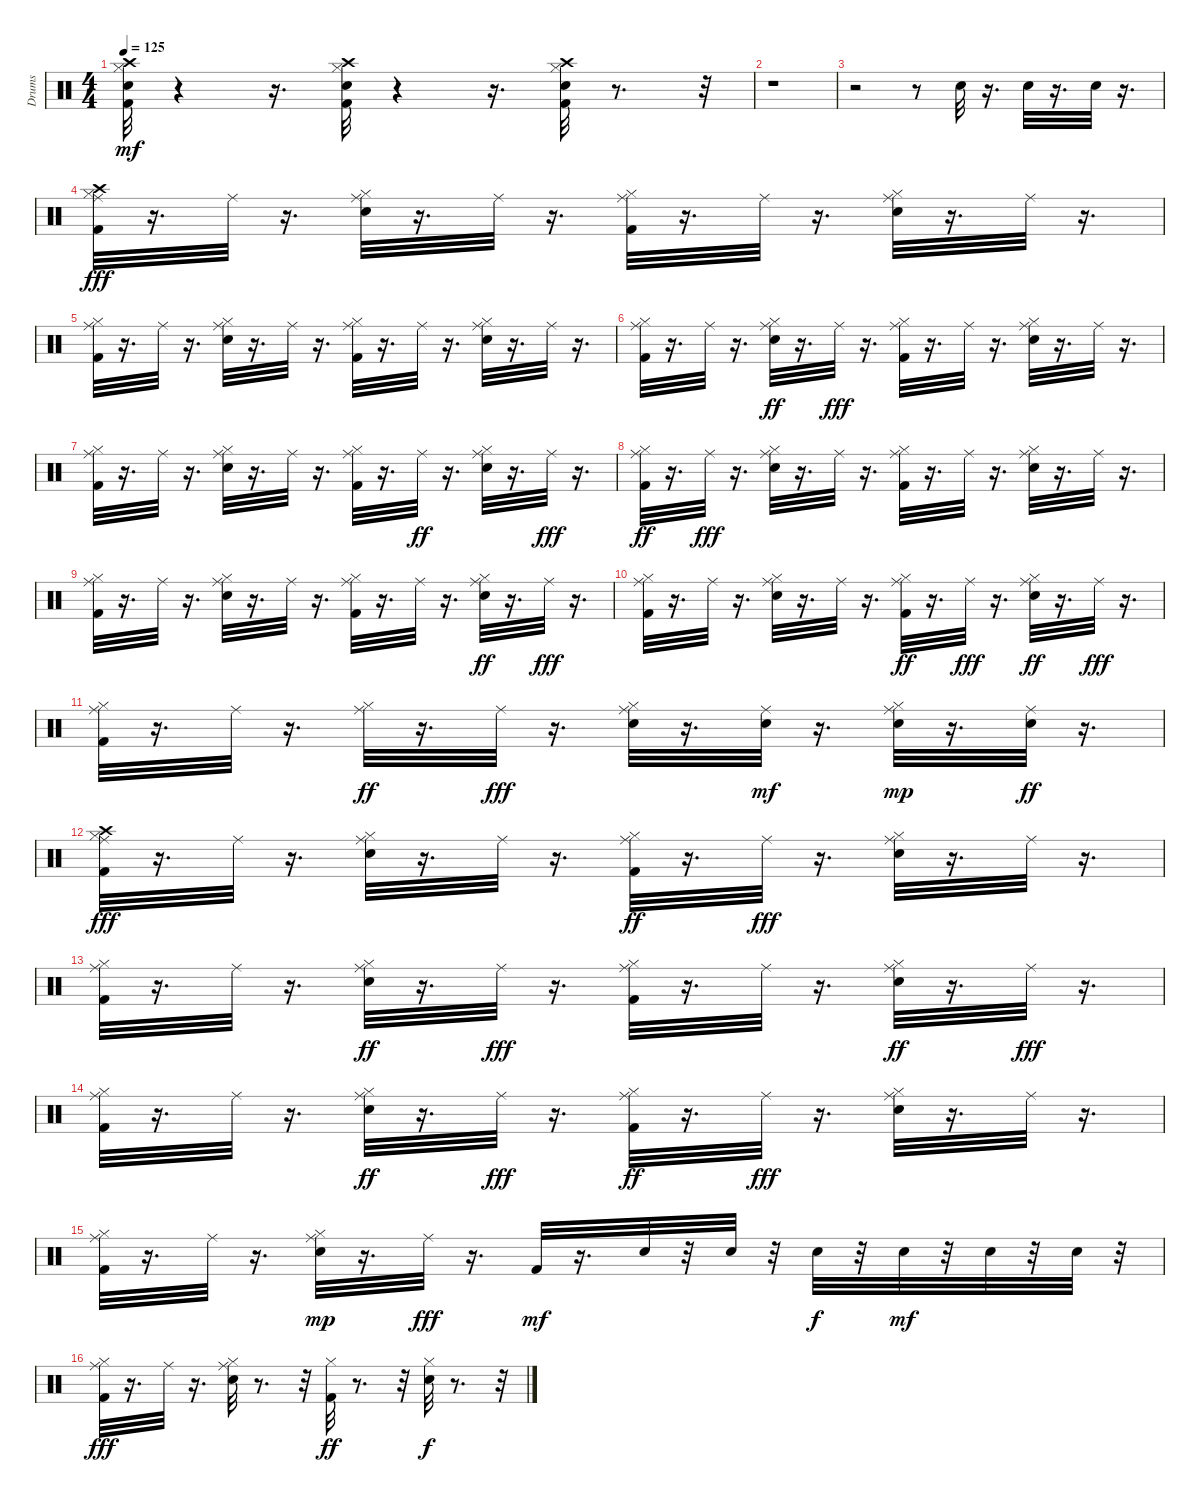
\track ("Drums" "Drums") {instrument percussion}
\staff {score}
\articulation defaults
\ts (4 4)
\tempo 125
\clef neutral
\ks c
("Hi-Hat (closed)" "Kick (hit) 2" "Snare (hit) 2" "Crash high (hit)").32{dy mf} r.4 r.16{d} ("Kick (hit) 2" "Crash high (hit)" "Snare (hit) 2" "Hi-Hat (closed)").32 r.4 r.16{d} ("Snare (hit) 2" "Crash high (hit)" "Kick (hit) 2" "Hi-Hat (closed)").32 r.8{d} r.32 |
r.1 |
r.2 r.8 "Snare (hit) 2".32 r.16{d} "Snare (hit) 2".32 r.16{d} "Snare (hit) 2".32 r.16{d} |
("Kick (hit) 2" "Crash high (hit)" "Hi-Hat (closed)" "Ride (middle)").32{dy fff} r.16{d} "Ride (middle)".32 r.16{d} ("Hi-Hat (closed)" "Ride (middle)" "Snare (hit) 2").32 r.16{d} "Ride (middle)".32 r.16{d} ("Kick (hit) 2" "Hi-Hat (closed)" "Ride (middle)").32 r.16{d} "Ride (middle)".32 r.16{d} ("Ride (middle)" "Snare (hit) 2" "Hi-Hat (closed)").32 r.16{d} "Ride (middle)".32 r.16{d} |
("Kick (hit) 2" "Ride (middle)" "Hi-Hat (closed)").32 r.16{d} "Ride (middle)".32 r.16{d} ("Hi-Hat (closed)" "Ride (middle)" "Snare (hit) 2").32 r.16{d} "Ride (middle)".32 r.16{d} ("Kick (hit) 2" "Ride (middle)" "Hi-Hat (closed)").32 r.16{d} "Ride (middle)".32 r.16{d} ("Snare (hit) 2" "Ride (middle)" "Hi-Hat (closed)").32 r.16{d} "Ride (middle)".32 r.16{d} |
("Kick (hit) 2" "Hi-Hat (closed)" "Ride (middle)").32 r.16{d} "Ride (middle)".32 r.16{d} ("Ride (middle)" "Snare (hit) 2" "Hi-Hat (closed)").32{dy ff} r.16{d} "Ride (middle)".32{dy fff} r.16{d} ("Kick (hit) 2" "Hi-Hat (closed)" "Ride (middle)").32 r.16{d} "Ride (middle)".32 r.16{d} ("Hi-Hat (closed)" "Snare (hit) 2" "Ride (middle)").32 r.16{d} "Ride (middle)".32 r.16{d} |
("Ride (middle)" "Hi-Hat (closed)" "Kick (hit) 2").32 r.16{d} "Ride (middle)".32 r.16{d} ("Hi-Hat (closed)" "Snare (hit) 2" "Ride (middle)").32 r.16{d} "Ride (middle)".32 r.16{d} ("Hi-Hat (closed)" "Kick (hit) 2" "Ride (middle)").32 r.16{d} "Ride (middle)".32{dy ff} r.16{d} ("Snare (hit) 2" "Hi-Hat (closed)" "Ride (middle)").32 r.16{d} "Ride (middle)".32{dy fff} r.16{d} |
("Kick (hit) 2" "Ride (middle)" "Hi-Hat (closed)").32{dy ff} r.16{d} "Ride (middle)".32{dy fff} r.16{d} ("Hi-Hat (closed)" "Snare (hit) 2" "Ride (middle)").32 r.16{d} "Ride (middle)".32 r.16{d} ("Ride (middle)" "Hi-Hat (closed)" "Kick (hit) 2").32 r.16{d} "Ride (middle)".32 r.16{d} ("Snare (hit) 2" "Ride (middle)" "Hi-Hat (closed)").32 r.16{d} "Ride (middle)".32 r.16{d} |
("Hi-Hat (closed)" "Kick (hit) 2" "Ride (middle)").32 r.16{d} "Ride (middle)".32 r.16{d} ("Hi-Hat (closed)" "Ride (middle)" "Snare (hit) 2").32 r.16{d} "Ride (middle)".32 r.16{d} ("Hi-Hat (closed)" "Ride (middle)" "Kick (hit) 2").32 r.16{d} "Ride (middle)".32 r.16{d} ("Ride (middle)" "Snare (hit) 2" "Hi-Hat (closed)").32{dy ff} r.16{d} "Ride (middle)".32{dy fff} r.16{d} |
("Kick (hit) 2" "Hi-Hat (closed)" "Ride (middle)").32 r.16{d} "Ride (middle)".32 r.16{d} ("Hi-Hat (closed)" "Snare (hit) 2" "Ride (middle)").32 r.16{d} "Ride (middle)".32 r.16{d} ("Ride (middle)" "Kick (hit) 2" "Hi-Hat (closed)").32{dy ff} r.16{d} "Ride (middle)".32{dy fff} r.16{d} ("Snare (hit) 2" "Ride (middle)" "Hi-Hat (closed)").32{dy ff} r.16{d} "Ride (middle)".32{dy fff} r.16{d} |
("Hi-Hat (closed)" "Kick (hit) 2" "Ride (middle)").32 r.16{d} "Ride (middle)".32 r.16{d} ("Ride (middle)" "Hi-Hat (closed)").32{dy ff} r.16{d} "Ride (middle)".32{dy fff} r.16{d} ("Hi-Hat (closed)" "Snare (hit) 2" "Ride (middle)").32 r.16{d} ("Ride (middle)" "Snare (hit) 2").32{dy mf} r.16{d} ("Ride (middle)" "Hi-Hat (closed)" "Snare (hit) 2").32{dy mp} r.16{d} ("Snare (hit) 2" "Ride (middle)").32{dy ff} r.16{d} |
("Hi-Hat (closed)" "Kick (hit) 2" "Crash high (hit)" "Ride (middle)").32{dy fff} r.16{d} "Ride (middle)".32 r.16{d} ("Hi-Hat (closed)" "Ride (middle)" "Snare (hit) 2").32 r.16{d} "Ride (middle)".32 r.16{d} ("Kick (hit) 2" "Ride (middle)" "Hi-Hat (closed)").32{dy ff} r.16{d} "Ride (middle)".32{dy fff} r.16{d} ("Ride (middle)" "Snare (hit) 2" "Hi-Hat (closed)").32 r.16{d} "Ride (middle)".32 r.16{d} |
("Hi-Hat (closed)" "Kick (hit) 2" "Ride (middle)").32 r.16{d} "Ride (middle)".32 r.16{d} ("Hi-Hat (closed)" "Snare (hit) 2" "Ride (middle)").32{dy ff} r.16{d} "Ride (middle)".32{dy fff} r.16{d} ("Hi-Hat (closed)" "Ride (middle)" "Kick (hit) 2").32 r.16{d} "Ride (middle)".32 r.16{d} ("Hi-Hat (closed)" "Ride (middle)" "Snare (hit) 2").32{dy ff} r.16{d} "Ride (middle)".32{dy fff} r.16{d} |
("Hi-Hat (closed)" "Ride (middle)" "Kick (hit) 2").32 r.16{d} "Ride (middle)".32 r.16{d} ("Snare (hit) 2" "Ride (middle)" "Hi-Hat (closed)").32{dy ff} r.16{d} "Ride (middle)".32{dy fff} r.16{d} ("Ride (middle)" "Kick (hit) 2" "Hi-Hat (closed)").32{dy ff} r.16{d} "Ride (middle)".32{dy fff} r.16{d} ("Hi-Hat (closed)" "Snare (hit) 2" "Ride (middle)").32 r.16{d} "Ride (middle)".32 r.16{d} |
("Kick (hit) 2" "Ride (middle)" "Hi-Hat (closed)").32 r.16{d} "Ride (middle)".32 r.16{d} ("Hi-Hat (closed)" "Ride (middle)" "Snare (hit) 2").32{dy mp} r.16{d} "Ride (middle)".32{dy fff} r.16{d} "Kick (hit) 2".32{dy mf} r.16{d} "Snare (hit) 2".32 r.32 "Snare (hit) 2".32 r.32 "Snare (hit) 2".32{dy f} r.32 "Snare (hit) 2".32{dy mf} r.32 "Snare (hit) 2".32 r.32 "Snare (hit) 2".32 r.32 |
("Kick (hit) 2" "Hi-Hat (closed)" "Ride (middle)").32{dy fff} r.16{d} "Ride (middle)".32 r.16{d} ("Hi-Hat (closed)" "Snare (hit) 2" "Ride (middle)").32 r.8{d} r.32 ("Hi-Hat (closed)" "Kick (hit) 2").32{dy ff} r.8{d} r.32 ("Snare (hit) 2" "Hi-Hat (closed)").32{dy f} r.8{d} r.32
